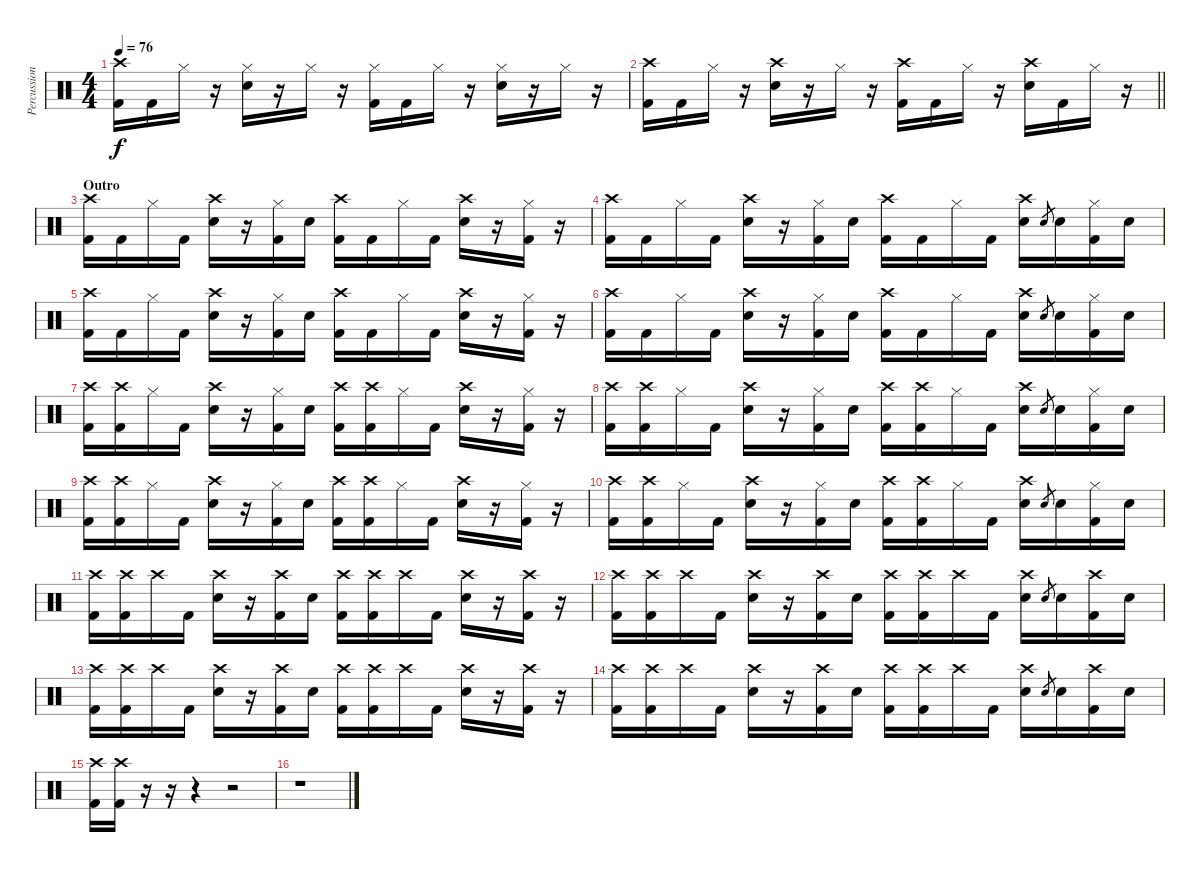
\track ("Percussion" "Percussion") {instrument percussion}
\staff {score}
\articulation defaults
\ts (4 4)
\tempo 76
\clef neutral
\ks c
("Crash high (hit)" "Kick (hit) 2").16{dy f} "Kick (hit) 2".16 "Hi-Hat (closed)".16 r.16 ("Hi-Hat (closed)" "Electric Snare (hit)").16 r.16 "Hi-Hat (closed)".16 r.16 ("Hi-Hat (closed)" "Kick (hit) 2").16 "Kick (hit) 2".16 "Hi-Hat (closed)".16 r.16 ("Hi-Hat (closed)" "Electric Snare (hit)").16 r.16 "Hi-Hat (closed)".16 r.16 |
\barLineRight lightlight
("Crash high (hit)" "Kick (hit) 2").16 "Kick (hit) 2".16 "Hi-Hat (closed)".16 r.16 ("Crash high (hit)" "Electric Snare (hit)").16 r.16 "Hi-Hat (closed)".16 r.16 ("Crash high (hit)" "Kick (hit) 2").16 "Kick (hit) 2".16 "Hi-Hat (closed)".16 r.16 ("Crash high (hit)" "Electric Snare (hit)").16 "Kick (hit) 2".16 "Hi-Hat (closed)".16 r.16 |
\section ("" "Outro")
("Crash high (hit)" "Kick (hit) 2").16 "Kick (hit) 2".16 "Hi-Hat (closed)".16 "Kick (hit) 2".16 ("Crash high (hit)" "Electric Snare (hit)").16 r.16 ("Hi-Hat (closed)" "Kick (hit) 2").16 "Electric Snare (hit)".16 ("Crash high (hit)" "Kick (hit) 2").16 "Kick (hit) 2".16 "Hi-Hat (closed)".16 "Kick (hit) 2".16 ("Crash high (hit)" "Electric Snare (hit)").16 r.16 ("Hi-Hat (closed)" "Kick (hit) 2").16 r.16 |
("Crash high (hit)" "Kick (hit) 2").16 "Kick (hit) 2".16 "Hi-Hat (closed)".16 "Kick (hit) 2".16 ("Crash high (hit)" "Electric Snare (hit)").16 r.16 ("Hi-Hat (closed)" "Kick (hit) 2").16 "Electric Snare (hit)".16 ("Crash high (hit)" "Kick (hit) 2").16 "Kick (hit) 2".16 "Hi-Hat (closed)".16 "Kick (hit) 2".16 ("Crash high (hit)" "Electric Snare (hit)").16 "Electric Snare (hit)".8{gr} "Electric Snare (hit)".16 ("Hi-Hat (closed)" "Kick (hit) 2").16 "Electric Snare (hit)".16 |
("Crash high (hit)" "Kick (hit) 2").16 "Kick (hit) 2".16 "Hi-Hat (closed)".16 "Kick (hit) 2".16 ("Crash high (hit)" "Electric Snare (hit)").16 r.16 ("Hi-Hat (closed)" "Kick (hit) 2").16 "Electric Snare (hit)".16 ("Crash high (hit)" "Kick (hit) 2").16 "Kick (hit) 2".16 "Hi-Hat (closed)".16 "Kick (hit) 2".16 ("Crash high (hit)" "Electric Snare (hit)").16 r.16 ("Hi-Hat (closed)" "Kick (hit) 2").16 r.16 |
("Crash high (hit)" "Kick (hit) 2").16 "Kick (hit) 2".16 "Hi-Hat (closed)".16 "Kick (hit) 2".16 ("Crash high (hit)" "Electric Snare (hit)").16 r.16 ("Hi-Hat (closed)" "Kick (hit) 2").16 "Electric Snare (hit)".16 ("Crash high (hit)" "Kick (hit) 2").16 "Kick (hit) 2".16 "Hi-Hat (closed)".16 "Kick (hit) 2".16 ("Crash high (hit)" "Electric Snare (hit)").16 "Electric Snare (hit)".8{gr} "Electric Snare (hit)".16 ("Hi-Hat (closed)" "Kick (hit) 2").16 "Electric Snare (hit)".16 |
("Crash high (hit)" "Kick (hit) 2").16 ("Crash high (hit)" "Kick (hit) 2").16 "Hi-Hat (closed)".16 "Kick (hit) 2".16 ("Crash high (hit)" "Electric Snare (hit)").16 r.16 ("Hi-Hat (closed)" "Kick (hit) 2").16 "Electric Snare (hit)".16 ("Crash high (hit)" "Kick (hit) 2").16 ("Crash high (hit)" "Kick (hit) 2").16 "Hi-Hat (closed)".16 "Kick (hit) 2".16 ("Crash high (hit)" "Electric Snare (hit)").16 r.16 ("Hi-Hat (closed)" "Kick (hit) 2").16 r.16 |
("Crash high (hit)" "Kick (hit) 2").16 ("Crash high (hit)" "Kick (hit) 2").16 "Hi-Hat (closed)".16 "Kick (hit) 2".16 ("Crash high (hit)" "Electric Snare (hit)").16 r.16 ("Hi-Hat (closed)" "Kick (hit) 2").16 "Electric Snare (hit)".16 ("Crash high (hit)" "Kick (hit) 2").16 ("Crash high (hit)" "Kick (hit) 2").16 "Hi-Hat (closed)".16 "Kick (hit) 2".16 ("Crash high (hit)" "Electric Snare (hit)").16 "Electric Snare (hit)".8{gr} "Electric Snare (hit)".16 ("Hi-Hat (closed)" "Kick (hit) 2").16 "Electric Snare (hit)".16 |
("Crash high (hit)" "Kick (hit) 2").16 ("Crash high (hit)" "Kick (hit) 2").16 "Hi-Hat (closed)".16 "Kick (hit) 2".16 ("Crash high (hit)" "Electric Snare (hit)").16 r.16 ("Hi-Hat (closed)" "Kick (hit) 2").16 "Electric Snare (hit)".16 ("Crash high (hit)" "Kick (hit) 2").16 ("Crash high (hit)" "Kick (hit) 2").16 "Hi-Hat (closed)".16 "Kick (hit) 2".16 ("Crash high (hit)" "Electric Snare (hit)").16 r.16 ("Hi-Hat (closed)" "Kick (hit) 2").16 r.16 |
("Crash high (hit)" "Kick (hit) 2").16 ("Crash high (hit)" "Kick (hit) 2").16 "Hi-Hat (closed)".16 "Kick (hit) 2".16 ("Crash high (hit)" "Electric Snare (hit)").16 r.16 ("Hi-Hat (closed)" "Kick (hit) 2").16 "Electric Snare (hit)".16 ("Crash high (hit)" "Kick (hit) 2").16 ("Crash high (hit)" "Kick (hit) 2").16 "Hi-Hat (closed)".16 "Kick (hit) 2".16 ("Crash high (hit)" "Electric Snare (hit)").16 "Electric Snare (hit)".8{gr} "Electric Snare (hit)".16 ("Hi-Hat (closed)" "Kick (hit) 2").16 "Electric Snare (hit)".16 |
("Crash high (hit)" "Kick (hit) 2").16 ("Crash high (hit)" "Kick (hit) 2").16 "Crash high (hit)".16 "Kick (hit) 2".16 ("Crash high (hit)" "Electric Snare (hit)").16 r.16 ("Crash high (hit)" "Kick (hit) 2").16 "Electric Snare (hit)".16 ("Crash high (hit)" "Kick (hit) 2").16 ("Crash high (hit)" "Kick (hit) 2").16 "Crash high (hit)".16 "Kick (hit) 2".16 ("Crash high (hit)" "Electric Snare (hit)").16 r.16 ("Crash high (hit)" "Kick (hit) 2").16 r.16 |
("Crash high (hit)" "Kick (hit) 2").16 ("Crash high (hit)" "Kick (hit) 2").16 "Crash high (hit)".16 "Kick (hit) 2".16 ("Crash high (hit)" "Electric Snare (hit)").16 r.16 ("Crash high (hit)" "Kick (hit) 2").16 "Electric Snare (hit)".16 ("Crash high (hit)" "Kick (hit) 2").16 ("Crash high (hit)" "Kick (hit) 2").16 "Crash high (hit)".16 "Kick (hit) 2".16 ("Crash high (hit)" "Electric Snare (hit)").16 "Electric Snare (hit)".8{gr} "Electric Snare (hit)".16 ("Crash high (hit)" "Kick (hit) 2").16 "Electric Snare (hit)".16 |
("Crash high (hit)" "Kick (hit) 2").16 ("Crash high (hit)" "Kick (hit) 2").16 "Crash high (hit)".16 "Kick (hit) 2".16 ("Crash high (hit)" "Electric Snare (hit)").16 r.16 ("Crash high (hit)" "Kick (hit) 2").16 "Electric Snare (hit)".16 ("Crash high (hit)" "Kick (hit) 2").16 ("Crash high (hit)" "Kick (hit) 2").16 "Crash high (hit)".16 "Kick (hit) 2".16 ("Crash high (hit)" "Electric Snare (hit)").16 r.16 ("Crash high (hit)" "Kick (hit) 2").16 r.16 |
("Crash high (hit)" "Kick (hit) 2").16 ("Crash high (hit)" "Kick (hit) 2").16 "Crash high (hit)".16 "Kick (hit) 2".16 ("Crash high (hit)" "Electric Snare (hit)").16 r.16 ("Crash high (hit)" "Kick (hit) 2").16 "Electric Snare (hit)".16 ("Crash high (hit)" "Kick (hit) 2").16 ("Crash high (hit)" "Kick (hit) 2").16 "Crash high (hit)".16 "Kick (hit) 2".16 ("Crash high (hit)" "Electric Snare (hit)").16 "Electric Snare (hit)".8{gr} "Electric Snare (hit)".16 ("Crash high (hit)" "Kick (hit) 2").16 "Electric Snare (hit)".16 |
("Crash high (hit)" "Kick (hit) 2").16 ("Crash high (hit)" "Kick (hit) 2").16 r.16 r.16 r.4 r.2 |
r.1
